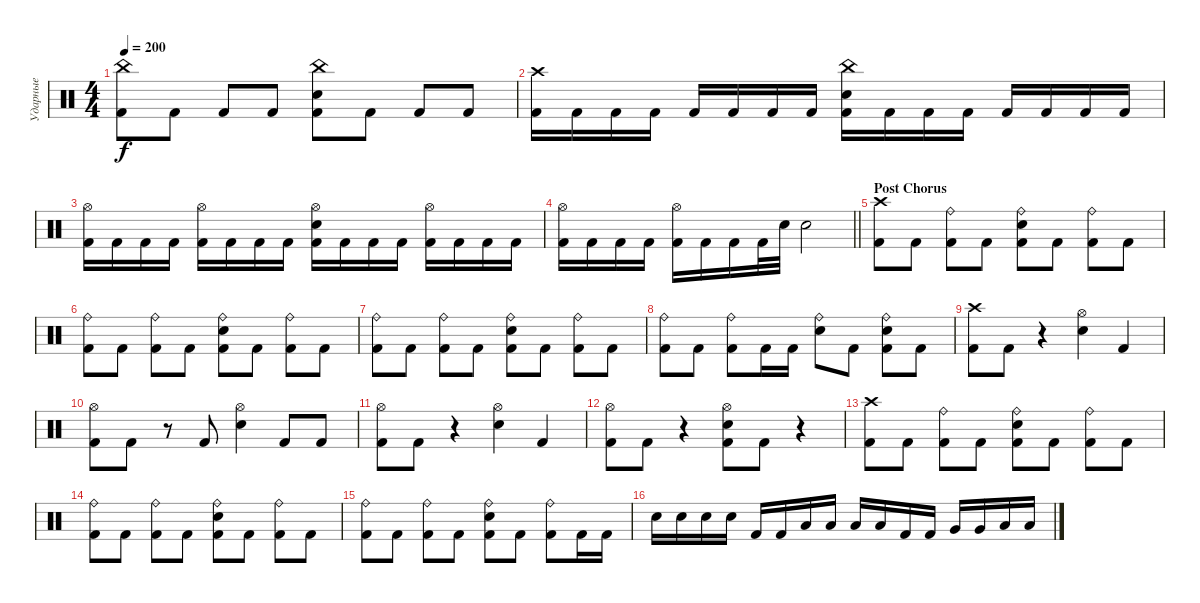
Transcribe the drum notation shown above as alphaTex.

\track ("Ударные" "Ударные") {instrument percussion}
\staff {score}
\articulation defaults
\ts (4 4)
\tempo 200
\clef neutral
\ks c
("China (hit)" "Kick (hit) 2").8{dy f} "Kick (hit) 2".8 "Kick (hit) 2".8 "Kick (hit) 2".8 ("China (hit)" "Snare (hit) 2" "Kick (hit) 2").8 "Kick (hit) 2".8 "Kick (hit) 2".8 "Kick (hit) 2".8 |
("Crash high (hit)" "Kick (hit) 2").16 "Kick (hit) 2".16 "Kick (hit) 2".16 "Kick (hit) 2".16 "Kick (hit) 2".16 "Kick (hit) 2".16 "Kick (hit) 2".16 "Kick (hit) 2".16 ("China (hit)" "Snare (hit) 2" "Kick (hit) 2").16 "Kick (hit) 2".16 "Kick (hit) 2".16 "Kick (hit) 2".16 "Kick (hit) 2".16 "Kick (hit) 2".16 "Kick (hit) 2".16 "Kick (hit) 2".16 |
("Hi-Hat (open)" "Kick (hit) 2").16 "Kick (hit) 2".16 "Kick (hit) 2".16 "Kick (hit) 2".16 ("Hi-Hat (open)" "Kick (hit) 2").16 "Kick (hit) 2".16 "Kick (hit) 2".16 "Kick (hit) 2".16 ("Hi-Hat (open)" "Snare (hit) 2" "Kick (hit) 2").16 "Kick (hit) 2".16 "Kick (hit) 2".16 "Kick (hit) 2".16 ("Hi-Hat (open)" "Kick (hit) 2").16 "Kick (hit) 2".16 "Kick (hit) 2".16 "Kick (hit) 2".16 |
\barLineRight lightlight
("Hi-Hat (open)" "Kick (hit) 2").16 "Kick (hit) 2".16 "Kick (hit) 2".16 "Kick (hit) 2".16 ("Hi-Hat (open)" "Kick (hit) 2").16 "Kick (hit) 2".16 "Kick (hit) 2".16 "Kick (hit) 2".32 "Snare (hit) 2".32 "Snare (hit) 2".2 |
\section ("" "Post Chorus")
("Crash high (hit)" "Kick (hit) 2").8 "Kick (hit) 2".8 ("Ride (bell)" "Kick (hit) 2").8 "Kick (hit) 2".8 ("Ride (bell)" "Snare (hit) 2" "Kick (hit) 2").8 "Kick (hit) 2".8 ("Ride (bell)" "Kick (hit) 2").8 "Kick (hit) 2".8 |
("Ride (bell)" "Kick (hit) 2").8 "Kick (hit) 2".8 ("Ride (bell)" "Kick (hit) 2").8 "Kick (hit) 2".8 ("Ride (bell)" "Snare (hit) 2" "Kick (hit) 2").8 "Kick (hit) 2".8 ("Ride (bell)" "Kick (hit) 2").8 "Kick (hit) 2".8 |
("Ride (bell)" "Kick (hit) 2").8 "Kick (hit) 2".8 ("Ride (bell)" "Kick (hit) 2").8 "Kick (hit) 2".8 ("Ride (bell)" "Snare (hit) 2" "Kick (hit) 2").8 "Kick (hit) 2".8 ("Ride (bell)" "Kick (hit) 2").8 "Kick (hit) 2".8 |
("Ride (bell)" "Kick (hit) 2").8 "Kick (hit) 2".8 ("Ride (bell)" "Kick (hit) 2").8 "Kick (hit) 2".16 "Kick (hit) 2".16 ("Ride (bell)" "Snare (hit) 2").8 "Kick (hit) 2".8 ("Ride (bell)" "Snare (hit) 2" "Kick (hit) 2").8 "Kick (hit) 2".8 |
("Crash high (hit)" "Kick (hit) 2").8 "Kick (hit) 2".8 r.4 ("Hi-Hat (open)" "Snare (hit) 2").4 "Kick (hit) 2".4 |
("Hi-Hat (open)" "Kick (hit) 2").8 "Kick (hit) 2".8 r.8 "Kick (hit) 2".8 ("Hi-Hat (open)" "Snare (hit) 2").4 "Kick (hit) 2".8 "Kick (hit) 2".8 |
("Hi-Hat (open)" "Kick (hit) 2").8 "Kick (hit) 2".8 r.4 ("Hi-Hat (open)" "Snare (hit) 2").4 "Kick (hit) 2".4 |
("Hi-Hat (open)" "Kick (hit) 2").8 "Kick (hit) 2".8 r.4 ("Hi-Hat (open)" "Snare (hit) 2" "Kick (hit) 2").8 "Kick (hit) 2".8 r.4 |
("Crash high (hit)" "Kick (hit) 2").8 "Kick (hit) 2".8 ("Ride (bell)" "Kick (hit) 2").8 "Kick (hit) 2".8 ("Ride (bell)" "Snare (hit) 2" "Kick (hit) 2").8 "Kick (hit) 2".8 ("Ride (bell)" "Kick (hit) 2").8 "Kick (hit) 2".8 |
("Ride (bell)" "Kick (hit) 2").8 "Kick (hit) 2".8 ("Ride (bell)" "Kick (hit) 2").8 "Kick (hit) 2".8 ("Ride (bell)" "Snare (hit) 2" "Kick (hit) 2").8 "Kick (hit) 2".8 ("Ride (bell)" "Kick (hit) 2").8 "Kick (hit) 2".8 |
("Ride (bell)" "Kick (hit) 2").8 "Kick (hit) 2".8 ("Ride (bell)" "Kick (hit) 2").8 "Kick (hit) 2".8 ("Ride (bell)" "Snare (hit) 2" "Kick (hit) 2").8 "Kick (hit) 2".8 ("Ride (bell)" "Kick (hit) 2").8 "Kick (hit) 2".16 "Kick (hit) 2".16 |
"Snare (hit) 2".16 "Snare (hit) 2".16 "Snare (hit) 2".16 "Snare (hit) 2".16 "Kick (hit) 2".16 "Kick (hit) 2".16 "Low Tom (hit)".16 "Low Tom (hit)".16 "Low Tom (hit)".16 "Low Tom (hit)".16 "Kick (hit) 2".16 "Kick (hit) 2".16 "Very Low Tom (hit)".16 "Very Low Tom (hit)".16 "Low Floor Tom (hit)".16 "Low Floor Tom (hit)".16
